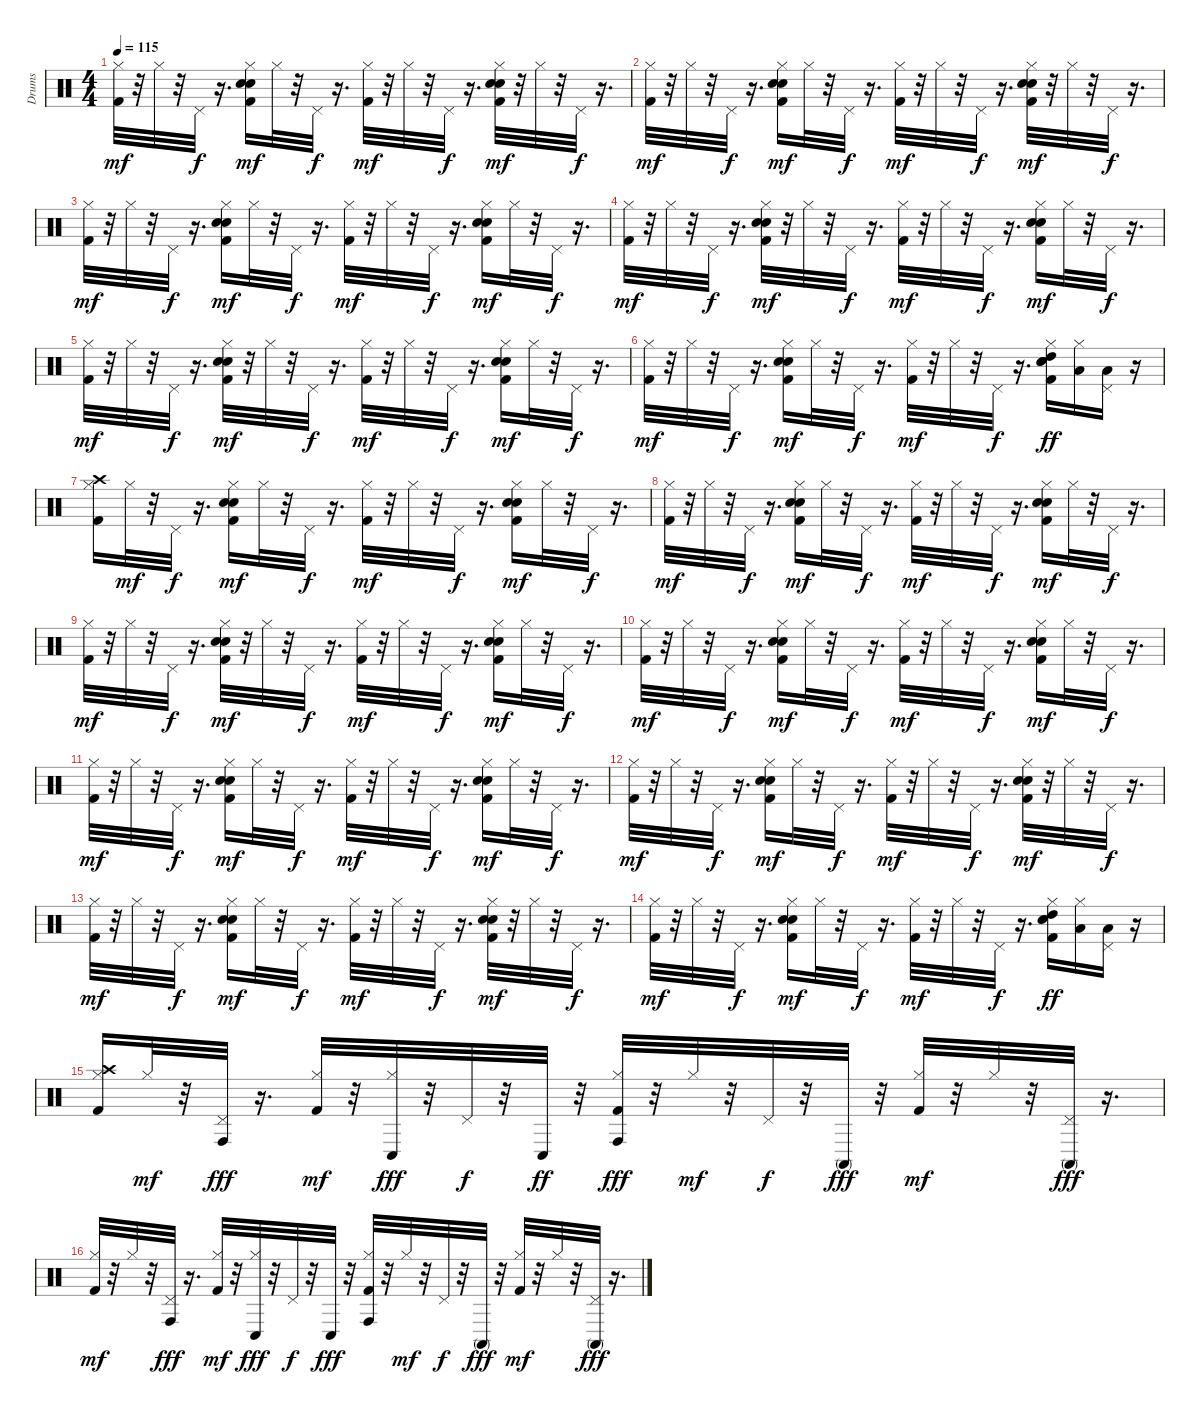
\track ("Drums" "Drums") {instrument percussion}
\staff {score}
\articulation defaults
\ts (4 4)
\tempo 115
\clef neutral
\ks c
("Kick (hit) 2" "Hi-Hat (closed)").32{dy mf} r.32 "Hi-Hat (closed)".32 r.32 "Pedal Hi-Hat (hit)".32{dy f} r.16{d} ("Kick (hit) 2" "Snare (hit) 2" "Hand Clap (hit)" "Hi-Hat (closed)").16{dy mf} "Hi-Hat (closed)".32 r.32 "Pedal Hi-Hat (hit)".32{dy f} r.16{d} ("Kick (hit) 2" "Hi-Hat (closed)").32{dy mf} r.32 "Hi-Hat (closed)".32 r.32 "Pedal Hi-Hat (hit)".32{dy f} r.16{d} ("Kick (hit) 2" "Snare (hit) 2" "Hand Clap (hit)" "Hi-Hat (closed)").32{dy mf} r.32 "Hi-Hat (closed)".32 r.32 "Pedal Hi-Hat (hit)".32{dy f} r.16{d} |
("Kick (hit) 2" "Hi-Hat (closed)").32{dy mf} r.32 "Hi-Hat (closed)".32 r.32 "Pedal Hi-Hat (hit)".32{dy f} r.16{d} ("Kick (hit) 2" "Snare (hit) 2" "Hand Clap (hit)" "Hi-Hat (closed)").16{dy mf} "Hi-Hat (closed)".32 r.32 "Pedal Hi-Hat (hit)".32{dy f} r.16{d} ("Kick (hit) 2" "Hi-Hat (closed)").32{dy mf} r.32 "Hi-Hat (closed)".32 r.32 "Pedal Hi-Hat (hit)".32{dy f} r.16{d} ("Kick (hit) 2" "Snare (hit) 2" "Hand Clap (hit)" "Hi-Hat (closed)").32{dy mf} r.32 "Hi-Hat (closed)".32 r.32 "Pedal Hi-Hat (hit)".32{dy f} r.16{d} |
("Kick (hit) 2" "Hi-Hat (closed)").32{dy mf} r.32 "Hi-Hat (closed)".32 r.32 "Pedal Hi-Hat (hit)".32{dy f} r.16{d} ("Kick (hit) 2" "Snare (hit) 2" "Hand Clap (hit)" "Hi-Hat (closed)").16{dy mf} "Hi-Hat (closed)".32 r.32 "Pedal Hi-Hat (hit)".32{dy f} r.16{d} ("Kick (hit) 2" "Hi-Hat (closed)").32{dy mf} r.32 "Hi-Hat (closed)".32 r.32 "Pedal Hi-Hat (hit)".32{dy f} r.16{d} ("Kick (hit) 2" "Snare (hit) 2" "Hand Clap (hit)" "Hi-Hat (closed)").16{dy mf} "Hi-Hat (closed)".32 r.32 "Pedal Hi-Hat (hit)".32{dy f} r.16{d} |
("Kick (hit) 2" "Hi-Hat (closed)").32{dy mf} r.32 "Hi-Hat (closed)".32 r.32 "Pedal Hi-Hat (hit)".32{dy f} r.16{d} ("Kick (hit) 2" "Snare (hit) 2" "Hand Clap (hit)" "Hi-Hat (closed)").32{dy mf} r.32 "Hi-Hat (closed)".32 r.32 "Pedal Hi-Hat (hit)".32{dy f} r.16{d} ("Kick (hit) 2" "Hi-Hat (closed)").32{dy mf} r.32 "Hi-Hat (closed)".32 r.32 "Pedal Hi-Hat (hit)".32{dy f} r.16{d} ("Kick (hit) 2" "Snare (hit) 2" "Hand Clap (hit)" "Hi-Hat (closed)").16{dy mf} "Hi-Hat (closed)".32 r.32 "Pedal Hi-Hat (hit)".32{dy f} r.16{d} |
("Kick (hit) 2" "Hi-Hat (closed)").32{dy mf} r.32 "Hi-Hat (closed)".32 r.32 "Pedal Hi-Hat (hit)".32{dy f} r.16{d} ("Kick (hit) 2" "Snare (hit) 2" "Hand Clap (hit)" "Hi-Hat (closed)").32{dy mf} r.32 "Hi-Hat (closed)".32 r.32 "Pedal Hi-Hat (hit)".32{dy f} r.16{d} ("Kick (hit) 2" "Hi-Hat (closed)").32{dy mf} r.32 "Hi-Hat (closed)".32 r.32 "Pedal Hi-Hat (hit)".32{dy f} r.16{d} ("Kick (hit) 2" "Snare (hit) 2" "Hand Clap (hit)" "Hi-Hat (closed)").16{dy mf} "Hi-Hat (closed)".32 r.32 "Pedal Hi-Hat (hit)".32{dy f} r.16{d} |
("Kick (hit) 2" "Hi-Hat (closed)").32{dy mf} r.32 "Hi-Hat (closed)".32 r.32 "Pedal Hi-Hat (hit)".32{dy f} r.16{d} ("Kick (hit) 2" "Snare (hit) 2" "Hand Clap (hit)" "Hi-Hat (closed)").16{dy mf} "Hi-Hat (closed)".32 r.32 "Pedal Hi-Hat (hit)".32{dy f} r.16{d} ("Kick (hit) 2" "Hi-Hat (closed)").32{dy mf} r.32 "Hi-Hat (closed)".32 r.32 "Pedal Hi-Hat (hit)".32{dy f} r.16{d} ("Kick (hit) 2" "Snare (hit) 2" "Hand Clap (hit)" "Hi-Hat (closed)" "High Tom (hit)").16{dy ff} ("Hi-Hat (closed)" "Low Tom (hit)").16 ("Pedal Hi-Hat (hit)" "Low Floor Tom (hit)").16 r.16 |
("Kick (hit) 2" "Hi-Hat (closed)" "Crash high (hit)").16 "Hi-Hat (closed)".32{dy mf} r.32 "Pedal Hi-Hat (hit)".32{dy f} r.16{d} ("Kick (hit) 2" "Snare (hit) 2" "Hand Clap (hit)" "Hi-Hat (closed)").16{dy mf} "Hi-Hat (closed)".32 r.32 "Pedal Hi-Hat (hit)".32{dy f} r.16{d} ("Kick (hit) 2" "Hi-Hat (closed)").32{dy mf} r.32 "Hi-Hat (closed)".32 r.32 "Pedal Hi-Hat (hit)".32{dy f} r.16{d} ("Kick (hit) 2" "Snare (hit) 2" "Hand Clap (hit)" "Hi-Hat (closed)").16{dy mf} "Hi-Hat (closed)".32 r.32 "Pedal Hi-Hat (hit)".32{dy f} r.16{d} |
("Kick (hit) 2" "Hi-Hat (closed)").32{dy mf} r.32 "Hi-Hat (closed)".32 r.32 "Pedal Hi-Hat (hit)".32{dy f} r.16{d} ("Kick (hit) 2" "Snare (hit) 2" "Hand Clap (hit)" "Hi-Hat (closed)").16{dy mf} "Hi-Hat (closed)".32 r.32 "Pedal Hi-Hat (hit)".32{dy f} r.16{d} ("Kick (hit) 2" "Hi-Hat (closed)").32{dy mf} r.32 "Hi-Hat (closed)".32 r.32 "Pedal Hi-Hat (hit)".32{dy f} r.16{d} ("Kick (hit) 2" "Snare (hit) 2" "Hand Clap (hit)" "Hi-Hat (closed)").16{dy mf} "Hi-Hat (closed)".32 r.32 "Pedal Hi-Hat (hit)".32{dy f} r.16{d} |
("Kick (hit) 2" "Hi-Hat (closed)").32{dy mf} r.32 "Hi-Hat (closed)".32 r.32 "Pedal Hi-Hat (hit)".32{dy f} r.16{d} ("Kick (hit) 2" "Snare (hit) 2" "Hand Clap (hit)" "Hi-Hat (closed)").32{dy mf} r.32 "Hi-Hat (closed)".32 r.32 "Pedal Hi-Hat (hit)".32{dy f} r.16{d} ("Kick (hit) 2" "Hi-Hat (closed)").32{dy mf} r.32 "Hi-Hat (closed)".32 r.32 "Pedal Hi-Hat (hit)".32{dy f} r.16{d} ("Kick (hit) 2" "Snare (hit) 2" "Hand Clap (hit)" "Hi-Hat (closed)").16{dy mf} "Hi-Hat (closed)".32 r.32 "Pedal Hi-Hat (hit)".32{dy f} r.16{d} |
("Kick (hit) 2" "Hi-Hat (closed)").32{dy mf} r.32 "Hi-Hat (closed)".32 r.32 "Pedal Hi-Hat (hit)".32{dy f} r.16{d} ("Kick (hit) 2" "Snare (hit) 2" "Hand Clap (hit)" "Hi-Hat (closed)").16{dy mf} "Hi-Hat (closed)".32 r.32 "Pedal Hi-Hat (hit)".32{dy f} r.16{d} ("Kick (hit) 2" "Hi-Hat (closed)").32{dy mf} r.32 "Hi-Hat (closed)".32 r.32 "Pedal Hi-Hat (hit)".32{dy f} r.16{d} ("Kick (hit) 2" "Snare (hit) 2" "Hand Clap (hit)" "Hi-Hat (closed)").16{dy mf} "Hi-Hat (closed)".32 r.32 "Pedal Hi-Hat (hit)".32{dy f} r.16{d} |
("Kick (hit) 2" "Hi-Hat (closed)").32{dy mf} r.32 "Hi-Hat (closed)".32 r.32 "Pedal Hi-Hat (hit)".32{dy f} r.16{d} ("Kick (hit) 2" "Snare (hit) 2" "Hand Clap (hit)" "Hi-Hat (closed)").16{dy mf} "Hi-Hat (closed)".32 r.32 "Pedal Hi-Hat (hit)".32{dy f} r.16{d} ("Kick (hit) 2" "Hi-Hat (closed)").32{dy mf} r.32 "Hi-Hat (closed)".32 r.32 "Pedal Hi-Hat (hit)".32{dy f} r.16{d} ("Kick (hit) 2" "Snare (hit) 2" "Hand Clap (hit)" "Hi-Hat (closed)").16{dy mf} "Hi-Hat (closed)".32 r.32 "Pedal Hi-Hat (hit)".32{dy f} r.16{d} |
("Kick (hit) 2" "Hi-Hat (closed)").32{dy mf} r.32 "Hi-Hat (closed)".32 r.32 "Pedal Hi-Hat (hit)".32{dy f} r.16{d} ("Kick (hit) 2" "Snare (hit) 2" "Hand Clap (hit)" "Hi-Hat (closed)").16{dy mf} "Hi-Hat (closed)".32 r.32 "Pedal Hi-Hat (hit)".32{dy f} r.16{d} ("Kick (hit) 2" "Hi-Hat (closed)").32{dy mf} r.32 "Hi-Hat (closed)".32 r.32 "Pedal Hi-Hat (hit)".32{dy f} r.16{d} ("Kick (hit) 2" "Snare (hit) 2" "Hand Clap (hit)" "Hi-Hat (closed)").32{dy mf} r.32 "Hi-Hat (closed)".32 r.32 "Pedal Hi-Hat (hit)".32{dy f} r.16{d} |
("Kick (hit) 2" "Hi-Hat (closed)").32{dy mf} r.32 "Hi-Hat (closed)".32 r.32 "Pedal Hi-Hat (hit)".32{dy f} r.16{d} ("Kick (hit) 2" "Snare (hit) 2" "Hand Clap (hit)" "Hi-Hat (closed)").16{dy mf} "Hi-Hat (closed)".32 r.32 "Pedal Hi-Hat (hit)".32{dy f} r.16{d} ("Kick (hit) 2" "Hi-Hat (closed)").32{dy mf} r.32 "Hi-Hat (closed)".32 r.32 "Pedal Hi-Hat (hit)".32{dy f} r.16{d} ("Kick (hit) 2" "Snare (hit) 2" "Hand Clap (hit)" "Hi-Hat (closed)").32{dy mf} r.32 "Hi-Hat (closed)".32 r.32 "Pedal Hi-Hat (hit)".32{dy f} r.16{d} |
("Kick (hit) 2" "Hi-Hat (closed)").32{dy mf} r.32 "Hi-Hat (closed)".32 r.32 "Pedal Hi-Hat (hit)".32{dy f} r.16{d} ("Kick (hit) 2" "Snare (hit) 2" "Hand Clap (hit)" "Hi-Hat (closed)").16{dy mf} "Hi-Hat (closed)".32 r.32 "Pedal Hi-Hat (hit)".32{dy f} r.16{d} ("Kick (hit) 2" "Hi-Hat (closed)").32{dy mf} r.32 "Hi-Hat (closed)".32 r.32 "Pedal Hi-Hat (hit)".32{dy f} r.16{d} ("Kick (hit) 2" "Snare (hit) 2" "Hand Clap (hit)" "Hi-Hat (closed)" "High Tom (hit)").16{dy ff} ("Hi-Hat (closed)" "Low Tom (hit)").16 ("Pedal Hi-Hat (hit)" "Low Floor Tom (hit)").16 r.16 |
("Kick (hit) 2" "Hi-Hat (closed)" "Crash high (hit)").16 "Hi-Hat (closed)".32{dy mf} r.32 ("Pedal Hi-Hat (hit)" "Conga high (hit)").32{dy fff} r.16{d} ("Kick (hit) 2" "Hi-Hat (closed)").32{dy mf} r.32 ("Hi-Hat (closed)" "Conga low (hit)").32{dy fff} r.32 "Pedal Hi-Hat (hit)".32{dy f} r.32 "Conga low (hit)".32{dy ff} r.32 ("Kick (hit) 2" "Hi-Hat (closed)" "Conga high (hit)").32{dy fff} r.32 "Hi-Hat (closed)".32{dy mf} r.32 "Pedal Hi-Hat (hit)".32{dy f} r.32 "Conga high (mute)".32{dy fff} r.32 ("Kick (hit) 2" "Hi-Hat (closed)").32{dy mf} r.32 "Hi-Hat (closed)".32 r.32 ("Pedal Hi-Hat (hit)" "Conga high (mute)").32{dy fff} r.16{d} |
("Kick (hit) 2" "Hi-Hat (closed)").32{dy mf} r.32 "Hi-Hat (closed)".32 r.32 ("Pedal Hi-Hat (hit)" "Conga high (hit)").32{dy fff} r.16{d} ("Kick (hit) 2" "Hi-Hat (closed)").32{dy mf} r.32 ("Hi-Hat (closed)" "Conga low (hit)").32{dy fff} r.32 "Pedal Hi-Hat (hit)".32{dy f} r.32 "Conga low (hit)".32{dy fff} r.32 ("Kick (hit) 2" "Hi-Hat (closed)" "Conga high (hit)").32 r.32 "Hi-Hat (closed)".32{dy mf} r.32 "Pedal Hi-Hat (hit)".32{dy f} r.32 "Conga high (mute)".32{dy fff} r.32 ("Kick (hit) 2" "Hi-Hat (closed)").32{dy mf} r.32 "Hi-Hat (closed)".32 r.32 ("Pedal Hi-Hat (hit)" "Conga high (mute)").32{dy fff} r.16{d}
